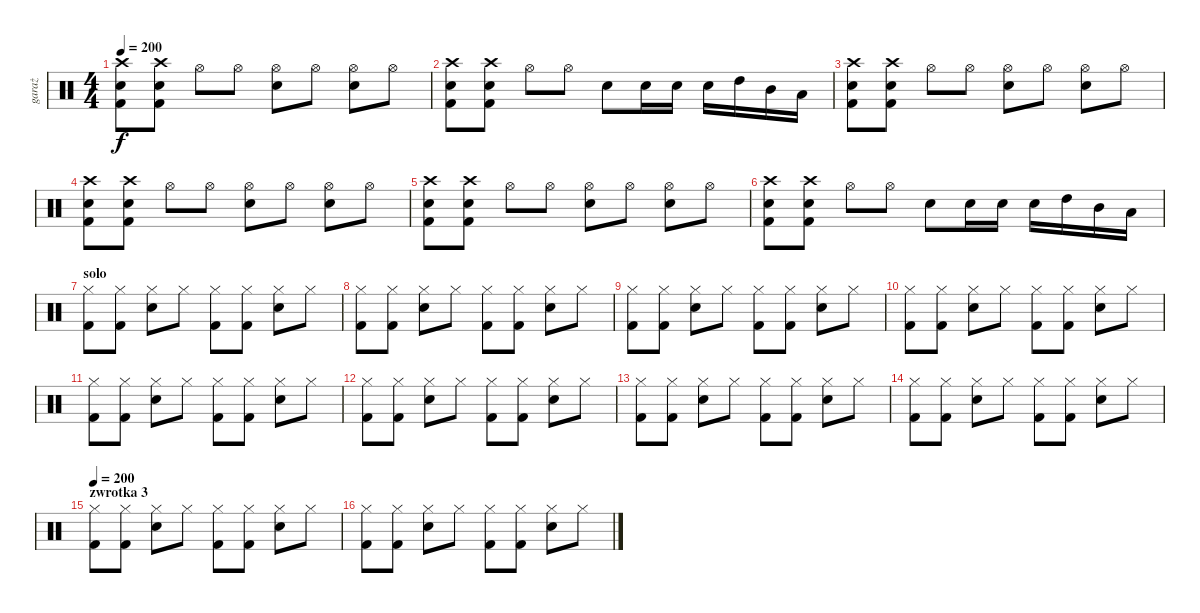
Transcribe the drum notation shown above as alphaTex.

\track ("garaż" "garaż") {instrument percussion}
\staff {score}
\articulation defaults
\ts (4 4)
\tempo 200
\clef neutral
\ks c
("Crash high (hit)" "Snare (hit) 2" "Kick (hit) 2").8{dy f} ("Crash high (hit)" "Snare (hit) 2" "Kick (hit) 2").8 "Hi-Hat (open)".8 "Hi-Hat (open)".8 ("Hi-Hat (open)" "Snare (hit) 2").8 "Hi-Hat (open)".8 ("Hi-Hat (open)" "Snare (hit) 2").8 "Hi-Hat (open)".8 |
("Crash high (hit)" "Snare (hit) 2" "Kick (hit) 2").8 ("Crash high (hit)" "Snare (hit) 2" "Kick (hit) 2").8 "Hi-Hat (open)".8 "Hi-Hat (open)".8 "Snare (hit) 2".8 "Snare (hit) 2".16 "Snare (hit) 2".16 "Snare (hit) 2".16 "High Tom (hit)".16 "Mid Tom (hit)".16 "Low Tom (hit)".16 |
("Crash high (hit)" "Snare (hit) 2" "Kick (hit) 2").8 ("Crash high (hit)" "Snare (hit) 2" "Kick (hit) 2").8 "Hi-Hat (open)".8 "Hi-Hat (open)".8 ("Hi-Hat (open)" "Snare (hit) 2").8 "Hi-Hat (open)".8 ("Hi-Hat (open)" "Snare (hit) 2").8 "Hi-Hat (open)".8 |
("Crash high (hit)" "Snare (hit) 2" "Kick (hit) 2").8 ("Crash high (hit)" "Snare (hit) 2" "Kick (hit) 2").8 "Hi-Hat (open)".8 "Hi-Hat (open)".8 ("Hi-Hat (open)" "Snare (hit) 2").8 "Hi-Hat (open)".8 ("Hi-Hat (open)" "Snare (hit) 2").8 "Hi-Hat (open)".8 |
("Crash high (hit)" "Snare (hit) 2" "Kick (hit) 2").8 ("Crash high (hit)" "Snare (hit) 2" "Kick (hit) 2").8 "Hi-Hat (open)".8 "Hi-Hat (open)".8 ("Hi-Hat (open)" "Snare (hit) 2").8 "Hi-Hat (open)".8 ("Hi-Hat (open)" "Snare (hit) 2").8 "Hi-Hat (open)".8 |
("Crash high (hit)" "Snare (hit) 2" "Kick (hit) 2").8 ("Crash high (hit)" "Snare (hit) 2" "Kick (hit) 2").8 "Hi-Hat (open)".8 "Hi-Hat (open)".8 "Snare (hit) 2".8 "Snare (hit) 2".16 "Snare (hit) 2".16 "Snare (hit) 2".16 "High Tom (hit)".16 "Mid Tom (hit)".16 "Low Tom (hit)".16 |
\section ("" "solo")
("Hi-Hat (closed)" "Kick (hit) 2").8 ("Hi-Hat (closed)" "Kick (hit) 2").8 ("Hi-Hat (closed)" "Snare (hit) 2").8 "Hi-Hat (closed)".8 ("Hi-Hat (closed)" "Kick (hit) 2").8 ("Hi-Hat (closed)" "Kick (hit) 2").8 ("Hi-Hat (closed)" "Snare (hit) 2").8 "Hi-Hat (closed)".8 |
("Hi-Hat (closed)" "Kick (hit) 2").8 ("Hi-Hat (closed)" "Kick (hit) 2").8 ("Hi-Hat (closed)" "Snare (hit) 2").8 "Hi-Hat (closed)".8 ("Hi-Hat (closed)" "Kick (hit) 2").8 ("Hi-Hat (closed)" "Kick (hit) 2").8 ("Hi-Hat (closed)" "Snare (hit) 2").8 "Hi-Hat (closed)".8 |
("Hi-Hat (closed)" "Kick (hit) 2").8 ("Hi-Hat (closed)" "Kick (hit) 2").8 ("Hi-Hat (closed)" "Snare (hit) 2").8 "Hi-Hat (closed)".8 ("Hi-Hat (closed)" "Kick (hit) 2").8 ("Hi-Hat (closed)" "Kick (hit) 2").8 ("Hi-Hat (closed)" "Snare (hit) 2").8 "Hi-Hat (closed)".8 |
("Hi-Hat (closed)" "Kick (hit) 2").8 ("Hi-Hat (closed)" "Kick (hit) 2").8 ("Hi-Hat (closed)" "Snare (hit) 2").8 "Hi-Hat (closed)".8 ("Hi-Hat (closed)" "Kick (hit) 2").8 ("Hi-Hat (closed)" "Kick (hit) 2").8 ("Hi-Hat (closed)" "Snare (hit) 2").8 "Hi-Hat (closed)".8 |
("Hi-Hat (closed)" "Kick (hit) 2").8 ("Hi-Hat (closed)" "Kick (hit) 2").8 ("Hi-Hat (closed)" "Snare (hit) 2").8 "Hi-Hat (closed)".8 ("Hi-Hat (closed)" "Kick (hit) 2").8 ("Hi-Hat (closed)" "Kick (hit) 2").8 ("Hi-Hat (closed)" "Snare (hit) 2").8 "Hi-Hat (closed)".8 |
("Hi-Hat (closed)" "Kick (hit) 2").8 ("Hi-Hat (closed)" "Kick (hit) 2").8 ("Hi-Hat (closed)" "Snare (hit) 2").8 "Hi-Hat (closed)".8 ("Hi-Hat (closed)" "Kick (hit) 2").8 ("Hi-Hat (closed)" "Kick (hit) 2").8 ("Hi-Hat (closed)" "Snare (hit) 2").8 "Hi-Hat (closed)".8 |
("Hi-Hat (closed)" "Kick (hit) 2").8 ("Hi-Hat (closed)" "Kick (hit) 2").8 ("Hi-Hat (closed)" "Snare (hit) 2").8 "Hi-Hat (closed)".8 ("Hi-Hat (closed)" "Kick (hit) 2").8 ("Hi-Hat (closed)" "Kick (hit) 2").8 ("Hi-Hat (closed)" "Snare (hit) 2").8 "Hi-Hat (closed)".8 |
("Hi-Hat (closed)" "Kick (hit) 2").8 ("Hi-Hat (closed)" "Kick (hit) 2").8 ("Hi-Hat (closed)" "Snare (hit) 2").8 "Hi-Hat (closed)".8 ("Hi-Hat (closed)" "Kick (hit) 2").8 ("Hi-Hat (closed)" "Kick (hit) 2").8 ("Hi-Hat (closed)" "Snare (hit) 2").8 "Hi-Hat (closed)".8 |
\section ("" "zwrotka 3")
\tempo 200
("Hi-Hat (closed)" "Kick (hit) 2").8 ("Hi-Hat (closed)" "Kick (hit) 2").8 ("Hi-Hat (closed)" "Snare (hit) 2").8 "Hi-Hat (closed)".8 ("Hi-Hat (closed)" "Kick (hit) 2").8 ("Hi-Hat (closed)" "Kick (hit) 2").8 ("Hi-Hat (closed)" "Snare (hit) 2").8 "Hi-Hat (closed)".8 |
("Hi-Hat (closed)" "Kick (hit) 2").8 ("Hi-Hat (closed)" "Kick (hit) 2").8 ("Hi-Hat (closed)" "Snare (hit) 2").8 "Hi-Hat (closed)".8 ("Hi-Hat (closed)" "Kick (hit) 2").8 ("Hi-Hat (closed)" "Kick (hit) 2").8 ("Hi-Hat (closed)" "Snare (hit) 2").8 "Hi-Hat (closed)".8
